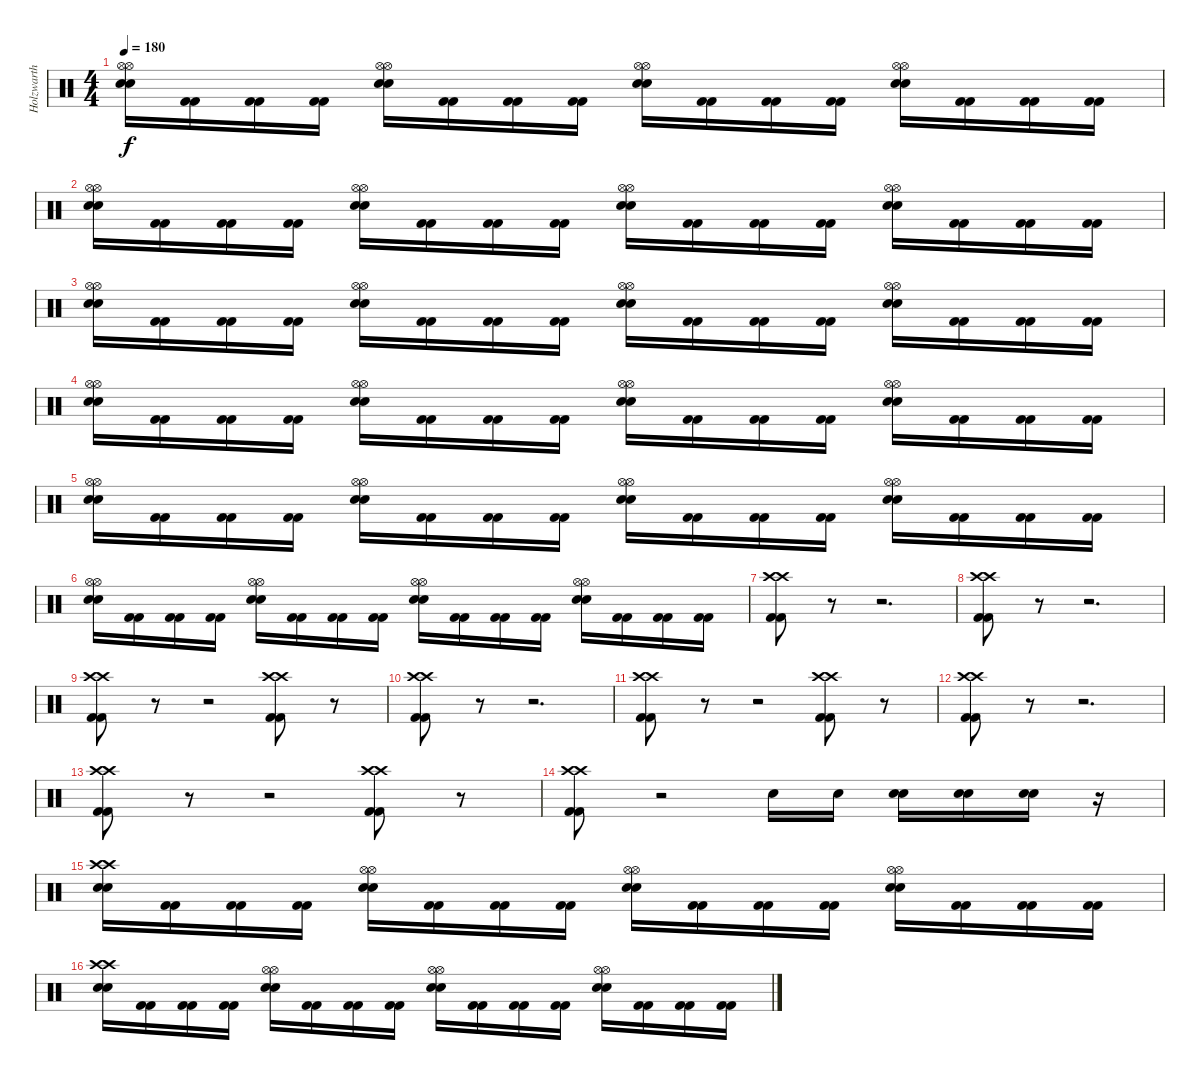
\track ("Holzwarth" "Holzwarth") {instrument percussion}
\staff {score}
\articulation defaults
\ts (4 4)
\tempo 180
\clef neutral
\ks c
("Snare (hit) 2" "Snare (hit) 2" "Hi-Hat (open)" "Hi-Hat (open)").16{dy f} ("Kick (hit) 2" "Kick (hit) 2").16 ("Kick (hit) 2" "Kick (hit) 2").16 ("Kick (hit) 2" "Kick (hit) 2").16 ("Snare (hit) 2" "Snare (hit) 2" "Hi-Hat (open)" "Hi-Hat (open)").16 ("Kick (hit) 2" "Kick (hit) 2").16 ("Kick (hit) 2" "Kick (hit) 2").16 ("Kick (hit) 2" "Kick (hit) 2").16 ("Snare (hit) 2" "Snare (hit) 2" "Hi-Hat (open)" "Hi-Hat (open)").16 ("Kick (hit) 2" "Kick (hit) 2").16 ("Kick (hit) 2" "Kick (hit) 2").16 ("Kick (hit) 2" "Kick (hit) 2").16 ("Snare (hit) 2" "Snare (hit) 2" "Hi-Hat (open)" "Hi-Hat (open)").16 ("Kick (hit) 2" "Kick (hit) 2").16 ("Kick (hit) 2" "Kick (hit) 2").16 ("Kick (hit) 2" "Kick (hit) 2").16 |
("Snare (hit) 2" "Snare (hit) 2" "Hi-Hat (open)" "Hi-Hat (open)").16 ("Kick (hit) 2" "Kick (hit) 2").16 ("Kick (hit) 2" "Kick (hit) 2").16 ("Kick (hit) 2" "Kick (hit) 2").16 ("Snare (hit) 2" "Snare (hit) 2" "Hi-Hat (open)" "Hi-Hat (open)").16 ("Kick (hit) 2" "Kick (hit) 2").16 ("Kick (hit) 2" "Kick (hit) 2").16 ("Kick (hit) 2" "Kick (hit) 2").16 ("Snare (hit) 2" "Snare (hit) 2" "Hi-Hat (open)" "Hi-Hat (open)").16 ("Kick (hit) 2" "Kick (hit) 2").16 ("Kick (hit) 2" "Kick (hit) 2").16 ("Kick (hit) 2" "Kick (hit) 2").16 ("Snare (hit) 2" "Snare (hit) 2" "Hi-Hat (open)" "Hi-Hat (open)").16 ("Kick (hit) 2" "Kick (hit) 2").16 ("Kick (hit) 2" "Kick (hit) 2").16 ("Kick (hit) 2" "Kick (hit) 2").16 |
("Snare (hit) 2" "Snare (hit) 2" "Hi-Hat (open)" "Hi-Hat (open)").16 ("Kick (hit) 2" "Kick (hit) 2").16 ("Kick (hit) 2" "Kick (hit) 2").16 ("Kick (hit) 2" "Kick (hit) 2").16 ("Snare (hit) 2" "Snare (hit) 2" "Hi-Hat (open)" "Hi-Hat (open)").16 ("Kick (hit) 2" "Kick (hit) 2").16 ("Kick (hit) 2" "Kick (hit) 2").16 ("Kick (hit) 2" "Kick (hit) 2").16 ("Snare (hit) 2" "Snare (hit) 2" "Hi-Hat (open)" "Hi-Hat (open)").16 ("Kick (hit) 2" "Kick (hit) 2").16 ("Kick (hit) 2" "Kick (hit) 2").16 ("Kick (hit) 2" "Kick (hit) 2").16 ("Snare (hit) 2" "Snare (hit) 2" "Hi-Hat (open)" "Hi-Hat (open)").16 ("Kick (hit) 2" "Kick (hit) 2").16 ("Kick (hit) 2" "Kick (hit) 2").16 ("Kick (hit) 2" "Kick (hit) 2").16 |
("Snare (hit) 2" "Snare (hit) 2" "Hi-Hat (open)" "Hi-Hat (open)").16 ("Kick (hit) 2" "Kick (hit) 2").16 ("Kick (hit) 2" "Kick (hit) 2").16 ("Kick (hit) 2" "Kick (hit) 2").16 ("Snare (hit) 2" "Snare (hit) 2" "Hi-Hat (open)" "Hi-Hat (open)").16 ("Kick (hit) 2" "Kick (hit) 2").16 ("Kick (hit) 2" "Kick (hit) 2").16 ("Kick (hit) 2" "Kick (hit) 2").16 ("Snare (hit) 2" "Snare (hit) 2" "Hi-Hat (open)" "Hi-Hat (open)").16 ("Kick (hit) 2" "Kick (hit) 2").16 ("Kick (hit) 2" "Kick (hit) 2").16 ("Kick (hit) 2" "Kick (hit) 2").16 ("Snare (hit) 2" "Snare (hit) 2" "Hi-Hat (open)" "Hi-Hat (open)").16 ("Kick (hit) 2" "Kick (hit) 2").16 ("Kick (hit) 2" "Kick (hit) 2").16 ("Kick (hit) 2" "Kick (hit) 2").16 |
("Snare (hit) 2" "Snare (hit) 2" "Hi-Hat (open)" "Hi-Hat (open)").16 ("Kick (hit) 2" "Kick (hit) 2").16 ("Kick (hit) 2" "Kick (hit) 2").16 ("Kick (hit) 2" "Kick (hit) 2").16 ("Snare (hit) 2" "Snare (hit) 2" "Hi-Hat (open)" "Hi-Hat (open)").16 ("Kick (hit) 2" "Kick (hit) 2").16 ("Kick (hit) 2" "Kick (hit) 2").16 ("Kick (hit) 2" "Kick (hit) 2").16 ("Snare (hit) 2" "Snare (hit) 2" "Hi-Hat (open)" "Hi-Hat (open)").16 ("Kick (hit) 2" "Kick (hit) 2").16 ("Kick (hit) 2" "Kick (hit) 2").16 ("Kick (hit) 2" "Kick (hit) 2").16 ("Snare (hit) 2" "Snare (hit) 2" "Hi-Hat (open)" "Hi-Hat (open)").16 ("Kick (hit) 2" "Kick (hit) 2").16 ("Kick (hit) 2" "Kick (hit) 2").16 ("Kick (hit) 2" "Kick (hit) 2").16 |
("Snare (hit) 2" "Snare (hit) 2" "Hi-Hat (open)" "Hi-Hat (open)").16 ("Kick (hit) 2" "Kick (hit) 2").16 ("Kick (hit) 2" "Kick (hit) 2").16 ("Kick (hit) 2" "Kick (hit) 2").16 ("Snare (hit) 2" "Snare (hit) 2" "Hi-Hat (open)" "Hi-Hat (open)").16 ("Kick (hit) 2" "Kick (hit) 2").16 ("Kick (hit) 2" "Kick (hit) 2").16 ("Kick (hit) 2" "Kick (hit) 2").16 ("Snare (hit) 2" "Snare (hit) 2" "Hi-Hat (open)" "Hi-Hat (open)").16 ("Kick (hit) 2" "Kick (hit) 2").16 ("Kick (hit) 2" "Kick (hit) 2").16 ("Kick (hit) 2" "Kick (hit) 2").16 ("Snare (hit) 2" "Snare (hit) 2" "Hi-Hat (open)" "Hi-Hat (open)").16 ("Kick (hit) 2" "Kick (hit) 2").16 ("Kick (hit) 2" "Kick (hit) 2").16 ("Kick (hit) 2" "Kick (hit) 2").16 |
("Kick (hit) 2" "Kick (hit) 2" "Crash high (hit)" "Crash high (hit)").8 r.8 r.2{d} |
("Kick (hit) 2" "Kick (hit) 2" "Crash high (hit)" "Crash high (hit)").8 r.8 r.2{d} |
("Kick (hit) 2" "Kick (hit) 2" "Crash high (hit)" "Crash high (hit)").8 r.8 r.2 ("Kick (hit) 2" "Kick (hit) 2" "Crash high (hit)" "Crash high (hit)").8 r.8 |
("Kick (hit) 2" "Kick (hit) 2" "Crash high (hit)" "Crash high (hit)").8 r.8 r.2{d} |
("Kick (hit) 2" "Kick (hit) 2" "Crash high (hit)" "Crash high (hit)").8 r.8 r.2 ("Kick (hit) 2" "Kick (hit) 2" "Crash high (hit)" "Crash high (hit)").8 r.8 |
("Kick (hit) 2" "Kick (hit) 2" "Crash high (hit)" "Crash high (hit)").8 r.8 r.2{d} |
("Kick (hit) 2" "Kick (hit) 2" "Crash high (hit)" "Crash high (hit)").8 r.8 r.2 ("Kick (hit) 2" "Kick (hit) 2" "Crash high (hit)" "Crash high (hit)").8 r.8 |
("Kick (hit) 2" "Kick (hit) 2" "Crash high (hit)" "Crash high (hit)").8 r.2 "Snare (hit) 2".16 "Snare (hit) 2".16 ("Snare (hit) 2" "Snare (hit) 2").16 ("Snare (hit) 2" "Snare (hit) 2").16 ("Snare (hit) 2" "Snare (hit) 2").16 r.16 |
("Snare (hit) 2" "Snare (hit) 2" "Crash high (hit)" "Crash high (hit)").16 ("Kick (hit) 2" "Kick (hit) 2").16 ("Kick (hit) 2" "Kick (hit) 2").16 ("Kick (hit) 2" "Kick (hit) 2").16 ("Snare (hit) 2" "Snare (hit) 2" "Hi-Hat (open)" "Hi-Hat (open)").16 ("Kick (hit) 2" "Kick (hit) 2").16 ("Kick (hit) 2" "Kick (hit) 2").16 ("Kick (hit) 2" "Kick (hit) 2").16 ("Snare (hit) 2" "Snare (hit) 2" "Hi-Hat (open)" "Hi-Hat (open)").16 ("Kick (hit) 2" "Kick (hit) 2").16 ("Kick (hit) 2" "Kick (hit) 2").16 ("Kick (hit) 2" "Kick (hit) 2").16 ("Snare (hit) 2" "Snare (hit) 2" "Hi-Hat (open)" "Hi-Hat (open)").16 ("Kick (hit) 2" "Kick (hit) 2").16 ("Kick (hit) 2" "Kick (hit) 2").16 ("Kick (hit) 2" "Kick (hit) 2").16 |
("Snare (hit) 2" "Snare (hit) 2" "Crash high (hit)" "Crash high (hit)").16 ("Kick (hit) 2" "Kick (hit) 2").16 ("Kick (hit) 2" "Kick (hit) 2").16 ("Kick (hit) 2" "Kick (hit) 2").16 ("Snare (hit) 2" "Snare (hit) 2" "Hi-Hat (open)" "Hi-Hat (open)").16 ("Kick (hit) 2" "Kick (hit) 2").16 ("Kick (hit) 2" "Kick (hit) 2").16 ("Kick (hit) 2" "Kick (hit) 2").16 ("Snare (hit) 2" "Snare (hit) 2" "Hi-Hat (open)" "Hi-Hat (open)").16 ("Kick (hit) 2" "Kick (hit) 2").16 ("Kick (hit) 2" "Kick (hit) 2").16 ("Kick (hit) 2" "Kick (hit) 2").16 ("Snare (hit) 2" "Snare (hit) 2" "Hi-Hat (open)" "Hi-Hat (open)").16 ("Kick (hit) 2" "Kick (hit) 2").16 ("Kick (hit) 2" "Kick (hit) 2").16 ("Kick (hit) 2" "Kick (hit) 2").16
